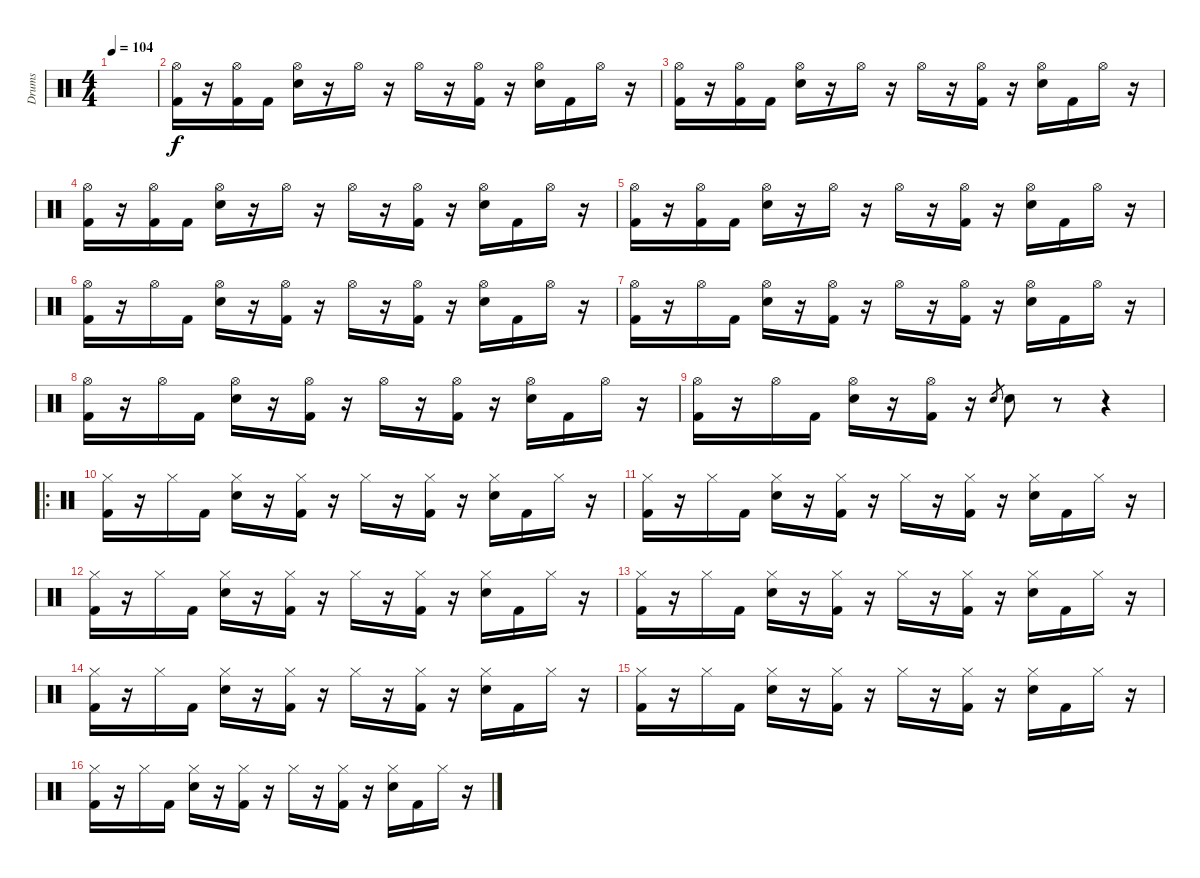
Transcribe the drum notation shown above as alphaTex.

\track ("Drums" "Drums") {instrument percussion}
\staff {score}
\articulation defaults
\ts (4 4)
\tempo 104
\clef neutral
\ks c
|
("Hi-Hat (open)" "Kick (hit) 2").16 r.16 ("Hi-Hat (open)" "Kick (hit) 2").16 "Kick (hit) 2".16 ("Hi-Hat (open)" "Snare (hit) 2").16 r.16 "Hi-Hat (open)".16 r.16 "Hi-Hat (open)".16 r.16 ("Hi-Hat (open)" "Kick (hit) 2").16 r.16 ("Hi-Hat (open)" "Snare (hit) 2").16 "Kick (hit) 2".16 "Hi-Hat (open)".16 r.16 |
("Hi-Hat (open)" "Kick (hit) 2").16 r.16 ("Hi-Hat (open)" "Kick (hit) 2").16 "Kick (hit) 2".16 ("Hi-Hat (open)" "Snare (hit) 2").16 r.16 "Hi-Hat (open)".16 r.16 "Hi-Hat (open)".16 r.16 ("Hi-Hat (open)" "Kick (hit) 2").16 r.16 ("Hi-Hat (open)" "Snare (hit) 2").16 "Kick (hit) 2".16 "Hi-Hat (open)".16 r.16 |
("Hi-Hat (open)" "Kick (hit) 2").16 r.16 ("Hi-Hat (open)" "Kick (hit) 2").16 "Kick (hit) 2".16 ("Hi-Hat (open)" "Snare (hit) 2").16 r.16 "Hi-Hat (open)".16 r.16 "Hi-Hat (open)".16 r.16 ("Hi-Hat (open)" "Kick (hit) 2").16 r.16 ("Hi-Hat (open)" "Snare (hit) 2").16 "Kick (hit) 2".16 "Hi-Hat (open)".16 r.16 |
("Hi-Hat (open)" "Kick (hit) 2").16 r.16 ("Hi-Hat (open)" "Kick (hit) 2").16 "Kick (hit) 2".16 ("Hi-Hat (open)" "Snare (hit) 2").16 r.16 "Hi-Hat (open)".16 r.16 "Hi-Hat (open)".16 r.16 ("Hi-Hat (open)" "Kick (hit) 2").16 r.16 ("Hi-Hat (open)" "Snare (hit) 2").16 "Kick (hit) 2".16 "Hi-Hat (open)".16 r.16 |
("Hi-Hat (open)" "Kick (hit) 2").16 r.16 "Hi-Hat (open)".16 "Kick (hit) 2".16 ("Hi-Hat (open)" "Snare (hit) 2").16 r.16 ("Hi-Hat (open)" "Kick (hit) 2").16 r.16 "Hi-Hat (open)".16 r.16 ("Hi-Hat (open)" "Kick (hit) 2").16 r.16 ("Hi-Hat (open)" "Snare (hit) 2").16 "Kick (hit) 2".16 "Hi-Hat (open)".16 r.16 |
("Hi-Hat (open)" "Kick (hit) 2").16 r.16 "Hi-Hat (open)".16 "Kick (hit) 2".16 ("Hi-Hat (open)" "Snare (hit) 2").16 r.16 ("Hi-Hat (open)" "Kick (hit) 2").16 r.16 "Hi-Hat (open)".16 r.16 ("Hi-Hat (open)" "Kick (hit) 2").16 r.16 ("Hi-Hat (open)" "Snare (hit) 2").16 "Kick (hit) 2".16 "Hi-Hat (open)".16 r.16 |
("Hi-Hat (open)" "Kick (hit) 2").16 r.16 "Hi-Hat (open)".16 "Kick (hit) 2".16 ("Hi-Hat (open)" "Snare (hit) 2").16 r.16 ("Hi-Hat (open)" "Kick (hit) 2").16 r.16 "Hi-Hat (open)".16 r.16 ("Hi-Hat (open)" "Kick (hit) 2").16 r.16 ("Hi-Hat (open)" "Snare (hit) 2").16 "Kick (hit) 2".16 "Hi-Hat (open)".16 r.16 |
("Hi-Hat (open)" "Kick (hit) 2").16 r.16 "Hi-Hat (open)".16 "Kick (hit) 2".16 ("Hi-Hat (open)" "Snare (hit) 2").16 r.16 ("Hi-Hat (open)" "Kick (hit) 2").16 r.16 "Snare (hit) 2".8{gr} "Snare (hit) 2".8 r.8 r.4 |
\ro
("Hi-Hat (closed)" "Kick (hit) 2").16 r.16 "Hi-Hat (closed)".16 "Kick (hit) 2".16 ("Hi-Hat (closed)" "Snare (hit) 2").16 r.16 ("Hi-Hat (closed)" "Kick (hit) 2").16 r.16 "Hi-Hat (closed)".16 r.16 ("Hi-Hat (closed)" "Kick (hit) 2").16 r.16 ("Hi-Hat (closed)" "Snare (hit) 2").16 "Kick (hit) 2".16 "Hi-Hat (closed)".16 r.16 |
("Hi-Hat (closed)" "Kick (hit) 2").16 r.16 "Hi-Hat (closed)".16 "Kick (hit) 2".16 ("Hi-Hat (closed)" "Snare (hit) 2").16 r.16 ("Hi-Hat (closed)" "Kick (hit) 2").16 r.16 "Hi-Hat (closed)".16 r.16 ("Hi-Hat (closed)" "Kick (hit) 2").16 r.16 ("Hi-Hat (closed)" "Snare (hit) 2").16 "Kick (hit) 2".16 "Hi-Hat (closed)".16 r.16 |
("Hi-Hat (closed)" "Kick (hit) 2").16 r.16 "Hi-Hat (closed)".16 "Kick (hit) 2".16 ("Hi-Hat (closed)" "Snare (hit) 2").16 r.16 ("Hi-Hat (closed)" "Kick (hit) 2").16 r.16 "Hi-Hat (closed)".16 r.16 ("Hi-Hat (closed)" "Kick (hit) 2").16 r.16 ("Hi-Hat (closed)" "Snare (hit) 2").16 "Kick (hit) 2".16 "Hi-Hat (closed)".16 r.16 |
("Hi-Hat (closed)" "Kick (hit) 2").16 r.16 "Hi-Hat (closed)".16 "Kick (hit) 2".16 ("Hi-Hat (closed)" "Snare (hit) 2").16 r.16 ("Hi-Hat (closed)" "Kick (hit) 2").16 r.16 "Hi-Hat (closed)".16 r.16 ("Hi-Hat (closed)" "Kick (hit) 2").16 r.16 ("Hi-Hat (closed)" "Snare (hit) 2").16 "Kick (hit) 2".16 "Hi-Hat (closed)".16 r.16 |
("Hi-Hat (closed)" "Kick (hit) 2").16 r.16 "Hi-Hat (closed)".16 "Kick (hit) 2".16 ("Hi-Hat (closed)" "Snare (hit) 2").16 r.16 ("Hi-Hat (closed)" "Kick (hit) 2").16 r.16 "Hi-Hat (closed)".16 r.16 ("Hi-Hat (closed)" "Kick (hit) 2").16 r.16 ("Hi-Hat (closed)" "Snare (hit) 2").16 "Kick (hit) 2".16 "Hi-Hat (closed)".16 r.16 |
("Hi-Hat (closed)" "Kick (hit) 2").16 r.16 "Hi-Hat (closed)".16 "Kick (hit) 2".16 ("Hi-Hat (closed)" "Snare (hit) 2").16 r.16 ("Hi-Hat (closed)" "Kick (hit) 2").16 r.16 "Hi-Hat (closed)".16 r.16 ("Hi-Hat (closed)" "Kick (hit) 2").16 r.16 ("Hi-Hat (closed)" "Snare (hit) 2").16 "Kick (hit) 2".16 "Hi-Hat (closed)".16 r.16 |
("Hi-Hat (closed)" "Kick (hit) 2").16 r.16 "Hi-Hat (closed)".16 "Kick (hit) 2".16 ("Hi-Hat (closed)" "Snare (hit) 2").16 r.16 ("Hi-Hat (closed)" "Kick (hit) 2").16 r.16 "Hi-Hat (closed)".16 r.16 ("Hi-Hat (closed)" "Kick (hit) 2").16 r.16 ("Hi-Hat (closed)" "Snare (hit) 2").16 "Kick (hit) 2".16 "Hi-Hat (closed)".16 r.16
